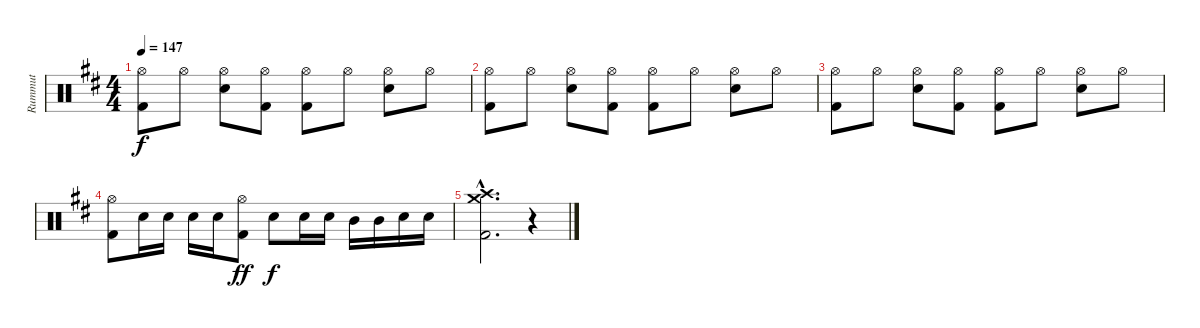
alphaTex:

\track ("Rummut" "Rummut") {instrument percussion}
\staff {score}
\articulation defaults
\ts (4 4)
\tempo 147
\clef neutral
\ks d
("Hi-Hat (open)" "Kick (hit) 2").8{dy f} "Hi-Hat (open)".8 ("Hi-Hat (open)" "Electric Snare (hit)").8 ("Hi-Hat (open)" "Kick (hit) 2").8 ("Hi-Hat (open)" "Kick (hit) 2").8 "Hi-Hat (open)".8 ("Hi-Hat (open)" "Electric Snare (hit)").8 "Hi-Hat (open)".8 |
("Hi-Hat (open)" "Kick (hit) 2").8 "Hi-Hat (open)".8 ("Hi-Hat (open)" "Electric Snare (hit)").8 ("Hi-Hat (open)" "Kick (hit) 2").8 ("Hi-Hat (open)" "Kick (hit) 2").8 "Hi-Hat (open)".8 ("Hi-Hat (open)" "Electric Snare (hit)").8 "Hi-Hat (open)".8 |
("Hi-Hat (open)" "Kick (hit) 2").8 "Hi-Hat (open)".8 ("Hi-Hat (open)" "Electric Snare (hit)").8 ("Hi-Hat (open)" "Kick (hit) 2").8 ("Hi-Hat (open)" "Kick (hit) 2").8 "Hi-Hat (open)".8 ("Hi-Hat (open)" "Electric Snare (hit)").8 "Hi-Hat (open)".8 |
("Hi-Hat (open)" "Kick (hit) 2").8 "Electric Snare (hit)".16 "Electric Snare (hit)".16 "Electric Snare (hit)".16 "Electric Snare (hit)".16 ("Hi-Hat (open)" "Kick (hit) 2").8{dy ff} "Electric Snare (hit)".8{dy f} "Electric Snare (hit)".16 "Electric Snare (hit)".16 "Mid Tom (hit)".16 "Mid Tom (hit)".16 "Electric Snare (hit)".16 "Electric Snare (hit)".16 |
("Crash high (hit)"{hac} "Crash medium (hit)"{hac} "Kick (hit) 2"{hac}).2{d} r.4
